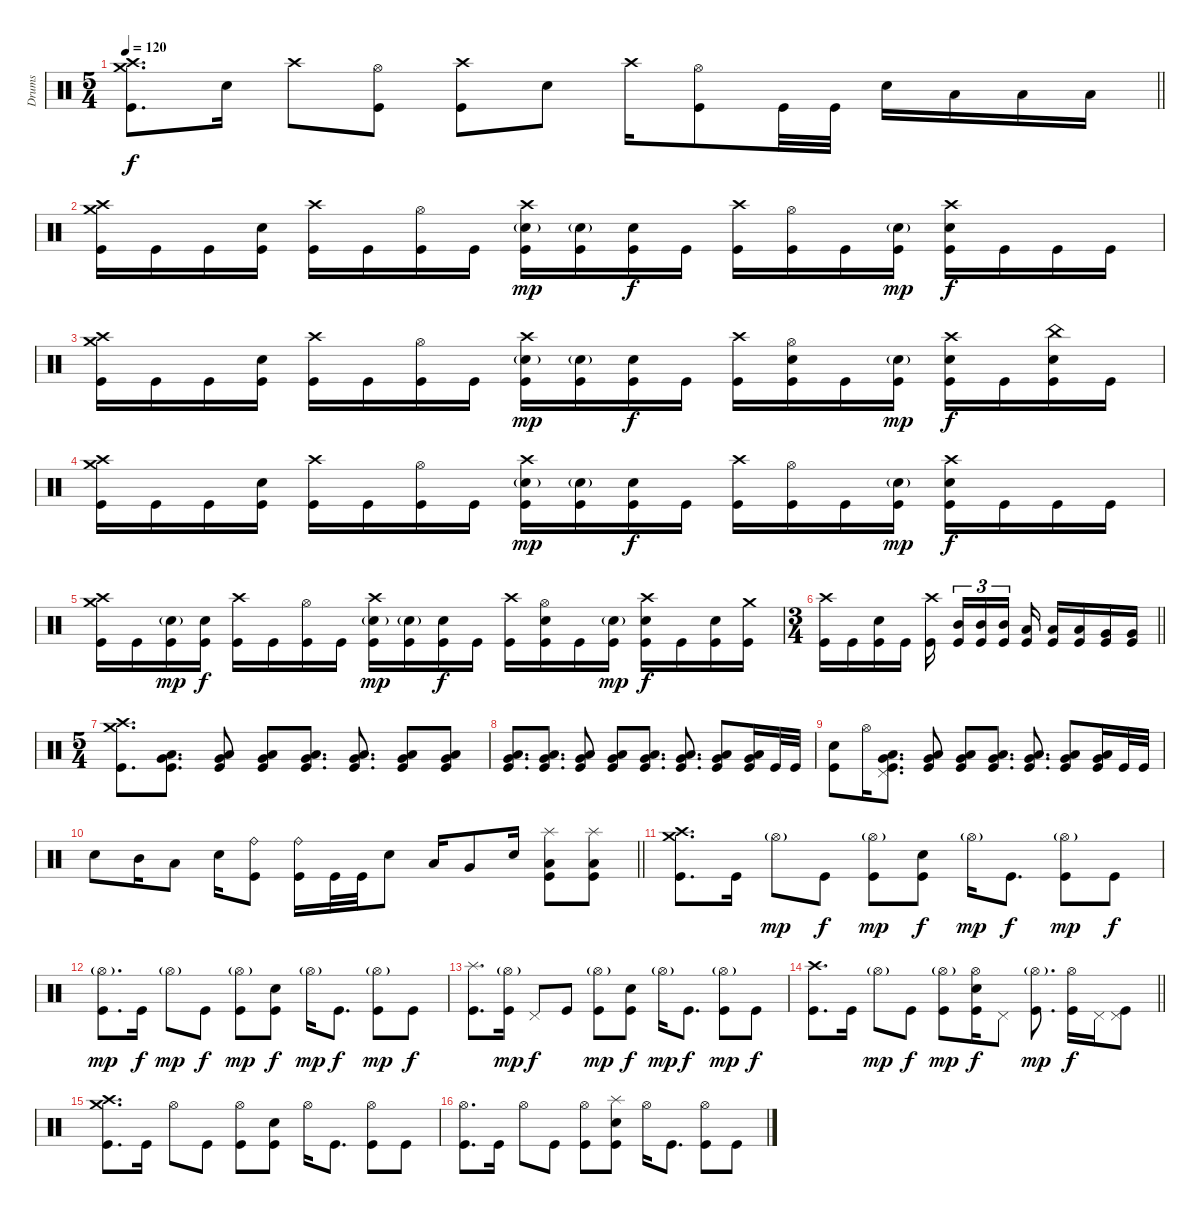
\track ("Drums" "Drums") {instrument percussion}
\staff
\articulation defaults
\ts (5 4)
\tempo 120
\clef neutral
\barLineRight lightlight
\ks c
("Crash high (hit)" "Crash medium (hit)" "Kick (hit)").8{d dy f} "Electric Snare (hit)".16 "Crash high (hit)".8 ("Hi-Hat (open)" "Kick (hit)").8 ("Crash high (hit)" "Kick (hit)").8 "Electric Snare (hit)".8 "Crash high (hit)".16 ("Hi-Hat (open)" "Kick (hit)").8 "Kick (hit)".32 "Kick (hit)".32 "Electric Snare (hit)".16 "Low Tom (hit)".16 "Low Tom (hit)".16 "Low Tom (hit)".16 |
\section ("" "")
("Crash high (hit)" "Crash medium (hit)" "Kick (hit)").16 "Kick (hit)".16 "Kick (hit)".16 ("Electric Snare (hit)" "Kick (hit)").16 ("Crash high (hit)" "Kick (hit)").16 "Kick (hit)".16 ("Hi-Hat (open)" "Kick (hit)").16 "Kick (hit)".16 ("Crash high (hit)" "Electric Snare (hit)"{g} "Kick (hit)").16{dy mp} ("Electric Snare (hit)"{g} "Kick (hit)").16 ("Electric Snare (hit)" "Kick (hit)").16{dy f} "Kick (hit)".16 ("Crash high (hit)" "Kick (hit)").16 ("Hi-Hat (open)" "Kick (hit)").16 "Kick (hit)".16 ("Electric Snare (hit)"{g} "Kick (hit)").16{dy mp} ("Crash high (hit)" "Electric Snare (hit)" "Kick (hit)").16{dy f} "Kick (hit)".16 "Kick (hit)".16 "Kick (hit)".16 |
("Crash high (hit)" "Crash medium (hit)" "Kick (hit)").16 "Kick (hit)".16 "Kick (hit)".16 ("Electric Snare (hit)" "Kick (hit)").16 ("Crash high (hit)" "Kick (hit)").16 "Kick (hit)".16 ("Hi-Hat (open)" "Kick (hit)").16 "Kick (hit)".16 ("Crash high (hit)" "Electric Snare (hit)"{g} "Kick (hit)").16{dy mp} ("Electric Snare (hit)"{g} "Kick (hit)").16 ("Electric Snare (hit)" "Kick (hit)").16{dy f} "Kick (hit)".16 ("Crash high (hit)" "Kick (hit)").16 ("Hi-Hat (open)" "Electric Snare (hit)" "Kick (hit)").16 "Kick (hit)".16 ("Electric Snare (hit)"{g} "Kick (hit)").16{dy mp} ("Crash high (hit)" "Electric Snare (hit)" "Kick (hit)").16{dy f} "Kick (hit)".16 ("China (hit)" "Electric Snare (hit)" "Kick (hit)").16 "Kick (hit)".16 |
("Crash high (hit)" "Crash medium (hit)" "Kick (hit)").16 "Kick (hit)".16 "Kick (hit)".16 ("Electric Snare (hit)" "Kick (hit)").16 ("Crash high (hit)" "Kick (hit)").16 "Kick (hit)".16 ("Hi-Hat (open)" "Kick (hit)").16 "Kick (hit)".16 ("Crash high (hit)" "Electric Snare (hit)"{g} "Kick (hit)").16{dy mp} ("Electric Snare (hit)"{g} "Kick (hit)").16 ("Electric Snare (hit)" "Kick (hit)").16{dy f} "Kick (hit)".16 ("Crash high (hit)" "Kick (hit)").16 ("Hi-Hat (open)" "Kick (hit)").16 "Kick (hit)".16 ("Electric Snare (hit)"{g} "Kick (hit)").16{dy mp} ("Crash high (hit)" "Electric Snare (hit)" "Kick (hit)").16{dy f} "Kick (hit)".16 "Kick (hit)".16 "Kick (hit)".16 |
("Crash high (hit)" "Crash medium (hit)" "Kick (hit)").16 "Kick (hit)".16 ("Electric Snare (hit)"{g} "Kick (hit)").16{dy mp} ("Electric Snare (hit)" "Kick (hit)").16{dy f} ("Crash high (hit)" "Kick (hit)").16 "Kick (hit)".16 ("Hi-Hat (open)" "Kick (hit)").16 "Kick (hit)".16 ("Crash high (hit)" "Electric Snare (hit)"{g} "Kick (hit)").16{dy mp} ("Electric Snare (hit)"{g} "Kick (hit)").16 ("Electric Snare (hit)" "Kick (hit)").16{dy f} "Kick (hit)".16 ("Crash high (hit)" "Kick (hit)").16 ("Hi-Hat (open)" "Electric Snare (hit)" "Kick (hit)").16 "Kick (hit)".16 ("Electric Snare (hit)"{g} "Kick (hit)").16{dy mp} ("Crash high (hit)" "Electric Snare (hit)" "Kick (hit)").16{dy f} "Kick (hit)".16 ("Electric Snare (hit)" "Kick (hit)").16 ("Crash medium (hit)" "Kick (hit)").16 |
\ts (3 4)
\barLineRight lightlight
("Crash high (hit)" "Kick (hit)").16 "Kick (hit)".16 ("Electric Snare (hit)" "Kick (hit)").16 "Kick (hit)".16 ("Crash high (hit)" "Kick (hit)").16{beam splitsecondary} ("Mid Tom (hit)" "Kick (hit)").16{tu (3 2)} ("Mid Tom (hit)" "Kick (hit)").16{tu (3 2)} ("Mid Tom (hit)" "Kick (hit)").16{tu (3 2) beam splitsecondary} ("Low Tom (hit)" "Kick (hit)").16 ("Low Tom (hit)" "Kick (hit)").16 ("Low Tom (hit)" "Kick (hit)").16 ("Very Low Tom (hit)" "Kick (hit)").16 ("Very Low Tom (hit)" "Kick (hit)").16 |
\ts (5 4)
\section ("" "")
("Crash high (hit)" "Crash medium (hit)" "Kick (hit)").8{d} ("Very Low Tom (hit)" "Low Floor Tom (hit)" "Kick (hit)").8{d} ("Very Low Tom (hit)" "Low Floor Tom (hit)" "Kick (hit)").8 ("Very Low Tom (hit)" "Low Floor Tom (hit)" "Kick (hit)").8 ("Very Low Tom (hit)" "Low Floor Tom (hit)" "Kick (hit)").8{d} ("Very Low Tom (hit)" "Low Floor Tom (hit)" "Kick (hit)").8{d} ("Very Low Tom (hit)" "Low Floor Tom (hit)" "Kick (hit)").8 ("Very Low Tom (hit)" "Low Floor Tom (hit)" "Kick (hit)").8 |
("Very Low Tom (hit)" "Low Floor Tom (hit)" "Kick (hit)").8{d} ("Very Low Tom (hit)" "Low Floor Tom (hit)" "Kick (hit)").8{d} ("Very Low Tom (hit)" "Low Floor Tom (hit)" "Kick (hit)").8 ("Very Low Tom (hit)" "Low Floor Tom (hit)" "Kick (hit)").8 ("Very Low Tom (hit)" "Low Floor Tom (hit)" "Kick (hit)").8{d} ("Very Low Tom (hit)" "Low Floor Tom (hit)" "Kick (hit)").8{d} ("Very Low Tom (hit)" "Low Floor Tom (hit)" "Kick (hit)").8 ("Very Low Tom (hit)" "Low Floor Tom (hit)" "Kick (hit)").16 "Kick (hit)".32 "Kick (hit)".32 |
("Electric Snare (hit)" "Kick (hit)").8 "Hi-Hat (open)".16 ("Pedal Hi-Hat (hit)" "Very Low Tom (hit)" "Low Floor Tom (hit)" "Kick (hit)").8{d} ("Very Low Tom (hit)" "Low Floor Tom (hit)" "Kick (hit)").8 ("Very Low Tom (hit)" "Low Floor Tom (hit)" "Kick (hit)").8 ("Very Low Tom (hit)" "Low Floor Tom (hit)" "Kick (hit)").8{d} ("Very Low Tom (hit)" "Low Floor Tom (hit)" "Kick (hit)").8{d} ("Very Low Tom (hit)" "Low Floor Tom (hit)" "Kick (hit)").8 ("Very Low Tom (hit)" "Low Floor Tom (hit)" "Kick (hit)").16 "Kick (hit)".32 "Kick (hit)".32 |
\barLineRight lightlight "Electric Snare (hit)".8 "Mid Tom (hit)".16 "Low Tom (hit)".8 "Electric Snare (hit)".16
("Ride (bell)" "Kick (hit)").8 ("Ride (bell)" "Kick (hit)").16 "Kick (hit)".32 "Kick (hit)".32 "Electric Snare (hit)".8 "Low Tom (hit)".16 "Very Low Tom (hit)".8 "Electric Snare (hit)".16 ("Splash (hit)" "Low Floor Tom (hit)" "Kick (hit)").8 ("Splash (hit)" "Low Floor Tom (hit)" "Kick (hit)").8 |
\section ("" "")
("Crash high (hit)" "Crash medium (hit)" "Kick (hit)").8{d} "Kick (hit)".16 "Hi-Hat (open)"{g}.8{dy mp} "Kick (hit)".8{dy f} ("Hi-Hat (open)"{g} "Kick (hit)").8{dy mp} ("Electric Snare (hit)" "Kick (hit)").8{dy f} "Hi-Hat (open)"{g}.16{dy mp} "Kick (hit)".8{d dy f} ("Hi-Hat (open)"{g} "Kick (hit)").8{dy mp} "Kick (hit)".8{dy f} |
("Hi-Hat (open)"{g} "Kick (hit)").8{d dy mp} "Kick (hit)".16{dy f} "Hi-Hat (open)"{g}.8{dy mp} "Kick (hit)".8{dy f} ("Hi-Hat (open)"{g} "Kick (hit)").8{dy mp} ("Electric Snare (hit)" "Kick (hit)").8{dy f} "Hi-Hat (open)"{g}.16{dy mp} "Kick (hit)".8{d dy f} ("Hi-Hat (open)"{g} "Kick (hit)").8{dy mp} "Kick (hit)".8{dy f} |
("Splash (hit)" "Kick (hit)").8{d} ("Hi-Hat (open)"{g} "Kick (hit)").16{dy mp} "Pedal Hi-Hat (hit)".8{dy f} "Kick (hit)".8 ("Hi-Hat (open)"{g} "Kick (hit)").8{dy mp} ("Electric Snare (hit)" "Kick (hit)").8{dy f} "Hi-Hat (open)"{g}.16{dy mp} "Kick (hit)".8{d dy f} ("Hi-Hat (open)"{g} "Kick (hit)").8{dy mp} "Kick (hit)".8{dy f} |
\barLineRight lightlight
("Crash high (hit)" "Kick (hit)").8{d} "Kick (hit)".16 "Hi-Hat (open)"{g}.8{dy mp} "Kick (hit)".8{dy f} ("Hi-Hat (open)"{g} "Kick (hit)").8{dy mp} ("Hi-Hat (open)" "Electric Snare (hit)" "Kick (hit)").16{dy f} "Pedal Hi-Hat (hit)".8 ("Hi-Hat (open)"{g} "Kick (hit)").8{d dy mp} ("Hi-Hat (open)" "Kick (hit)").16{dy f} "Pedal Hi-Hat (hit)".16 ("Pedal Hi-Hat (hit)" "Kick (hit)").8 |
("Crash high (hit)" "Crash medium (hit)" "Kick (hit)").8{d} "Kick (hit)".16 "Hi-Hat (open)".8 "Kick (hit)".8 ("Hi-Hat (open)" "Kick (hit)").8 ("Electric Snare (hit)" "Kick (hit)").8 "Hi-Hat (open)".16 "Kick (hit)".8{d} ("Hi-Hat (open)" "Kick (hit)").8 "Kick (hit)".8 |
("Hi-Hat (open)" "Kick (hit)").8{d} "Kick (hit)".16 "Hi-Hat (open)".8 "Kick (hit)".8 ("Hi-Hat (open)" "Kick (hit)").8 ("Splash (hit)" "Electric Snare (hit)" "Kick (hit)").8 "Hi-Hat (open)".16 "Kick (hit)".8{d} ("Hi-Hat (open)" "Kick (hit)").8 "Kick (hit)".8
